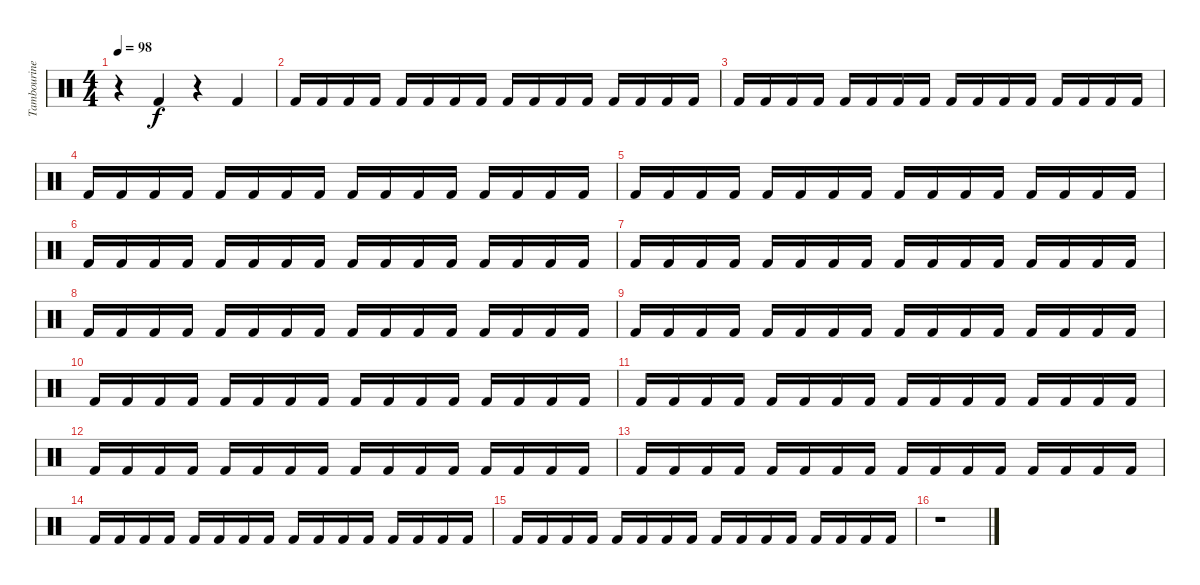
\track ("Tambourine" "Tambourine") {instrument percussion}
\staff {score}
\articulation defaults
\ts (4 4)
\tempo 98
\clef neutral
\ks c
r.4{dy f} "Kick (hit) 2".4 r.4 "Kick (hit) 2".4 |
"Kick (hit) 2".16 "Kick (hit) 2".16 "Kick (hit) 2".16 "Kick (hit) 2".16 "Kick (hit) 2".16 "Kick (hit) 2".16 "Kick (hit) 2".16 "Kick (hit) 2".16 "Kick (hit) 2".16 "Kick (hit) 2".16 "Kick (hit) 2".16 "Kick (hit) 2".16 "Kick (hit) 2".16 "Kick (hit) 2".16 "Kick (hit) 2".16 "Kick (hit) 2".16 |
"Kick (hit) 2".16 "Kick (hit) 2".16 "Kick (hit) 2".16 "Kick (hit) 2".16 "Kick (hit) 2".16 "Kick (hit) 2".16 "Kick (hit) 2".16 "Kick (hit) 2".16 "Kick (hit) 2".16 "Kick (hit) 2".16 "Kick (hit) 2".16 "Kick (hit) 2".16 "Kick (hit) 2".16 "Kick (hit) 2".16 "Kick (hit) 2".16 "Kick (hit) 2".16 |
"Kick (hit) 2".16 "Kick (hit) 2".16 "Kick (hit) 2".16 "Kick (hit) 2".16 "Kick (hit) 2".16 "Kick (hit) 2".16 "Kick (hit) 2".16 "Kick (hit) 2".16 "Kick (hit) 2".16 "Kick (hit) 2".16 "Kick (hit) 2".16 "Kick (hit) 2".16 "Kick (hit) 2".16 "Kick (hit) 2".16 "Kick (hit) 2".16 "Kick (hit) 2".16 |
"Kick (hit) 2".16 "Kick (hit) 2".16 "Kick (hit) 2".16 "Kick (hit) 2".16 "Kick (hit) 2".16 "Kick (hit) 2".16 "Kick (hit) 2".16 "Kick (hit) 2".16 "Kick (hit) 2".16 "Kick (hit) 2".16 "Kick (hit) 2".16 "Kick (hit) 2".16 "Kick (hit) 2".16 "Kick (hit) 2".16 "Kick (hit) 2".16 "Kick (hit) 2".16 |
"Kick (hit) 2".16 "Kick (hit) 2".16 "Kick (hit) 2".16 "Kick (hit) 2".16 "Kick (hit) 2".16 "Kick (hit) 2".16 "Kick (hit) 2".16 "Kick (hit) 2".16 "Kick (hit) 2".16 "Kick (hit) 2".16 "Kick (hit) 2".16 "Kick (hit) 2".16 "Kick (hit) 2".16 "Kick (hit) 2".16 "Kick (hit) 2".16 "Kick (hit) 2".16 |
"Kick (hit) 2".16 "Kick (hit) 2".16 "Kick (hit) 2".16 "Kick (hit) 2".16 "Kick (hit) 2".16 "Kick (hit) 2".16 "Kick (hit) 2".16 "Kick (hit) 2".16 "Kick (hit) 2".16 "Kick (hit) 2".16 "Kick (hit) 2".16 "Kick (hit) 2".16 "Kick (hit) 2".16 "Kick (hit) 2".16 "Kick (hit) 2".16 "Kick (hit) 2".16 |
"Kick (hit) 2".16 "Kick (hit) 2".16 "Kick (hit) 2".16 "Kick (hit) 2".16 "Kick (hit) 2".16 "Kick (hit) 2".16 "Kick (hit) 2".16 "Kick (hit) 2".16 "Kick (hit) 2".16 "Kick (hit) 2".16 "Kick (hit) 2".16 "Kick (hit) 2".16 "Kick (hit) 2".16 "Kick (hit) 2".16 "Kick (hit) 2".16 "Kick (hit) 2".16 |
"Kick (hit) 2".16 "Kick (hit) 2".16 "Kick (hit) 2".16 "Kick (hit) 2".16 "Kick (hit) 2".16 "Kick (hit) 2".16 "Kick (hit) 2".16 "Kick (hit) 2".16 "Kick (hit) 2".16 "Kick (hit) 2".16 "Kick (hit) 2".16 "Kick (hit) 2".16 "Kick (hit) 2".16 "Kick (hit) 2".16 "Kick (hit) 2".16 "Kick (hit) 2".16 |
"Kick (hit) 2".16 "Kick (hit) 2".16 "Kick (hit) 2".16 "Kick (hit) 2".16 "Kick (hit) 2".16 "Kick (hit) 2".16 "Kick (hit) 2".16 "Kick (hit) 2".16 "Kick (hit) 2".16 "Kick (hit) 2".16 "Kick (hit) 2".16 "Kick (hit) 2".16 "Kick (hit) 2".16 "Kick (hit) 2".16 "Kick (hit) 2".16 "Kick (hit) 2".16 |
"Kick (hit) 2".16 "Kick (hit) 2".16 "Kick (hit) 2".16 "Kick (hit) 2".16 "Kick (hit) 2".16 "Kick (hit) 2".16 "Kick (hit) 2".16 "Kick (hit) 2".16 "Kick (hit) 2".16 "Kick (hit) 2".16 "Kick (hit) 2".16 "Kick (hit) 2".16 "Kick (hit) 2".16 "Kick (hit) 2".16 "Kick (hit) 2".16 "Kick (hit) 2".16 |
"Kick (hit) 2".16 "Kick (hit) 2".16 "Kick (hit) 2".16 "Kick (hit) 2".16 "Kick (hit) 2".16 "Kick (hit) 2".16 "Kick (hit) 2".16 "Kick (hit) 2".16 "Kick (hit) 2".16 "Kick (hit) 2".16 "Kick (hit) 2".16 "Kick (hit) 2".16 "Kick (hit) 2".16 "Kick (hit) 2".16 "Kick (hit) 2".16 "Kick (hit) 2".16 |
"Kick (hit) 2".16 "Kick (hit) 2".16 "Kick (hit) 2".16 "Kick (hit) 2".16 "Kick (hit) 2".16 "Kick (hit) 2".16 "Kick (hit) 2".16 "Kick (hit) 2".16 "Kick (hit) 2".16 "Kick (hit) 2".16 "Kick (hit) 2".16 "Kick (hit) 2".16 "Kick (hit) 2".16 "Kick (hit) 2".16 "Kick (hit) 2".16 "Kick (hit) 2".16 |
"Kick (hit) 2".16 "Kick (hit) 2".16 "Kick (hit) 2".16 "Kick (hit) 2".16 "Kick (hit) 2".16 "Kick (hit) 2".16 "Kick (hit) 2".16 "Kick (hit) 2".16 "Kick (hit) 2".16 "Kick (hit) 2".16 "Kick (hit) 2".16 "Kick (hit) 2".16 "Kick (hit) 2".16 "Kick (hit) 2".16 "Kick (hit) 2".16 "Kick (hit) 2".16 |
"Kick (hit) 2".16 "Kick (hit) 2".16 "Kick (hit) 2".16 "Kick (hit) 2".16 "Kick (hit) 2".16 "Kick (hit) 2".16 "Kick (hit) 2".16 "Kick (hit) 2".16 "Kick (hit) 2".16 "Kick (hit) 2".16 "Kick (hit) 2".16 "Kick (hit) 2".16 "Kick (hit) 2".16 "Kick (hit) 2".16 "Kick (hit) 2".16 "Kick (hit) 2".16 |
r.1
